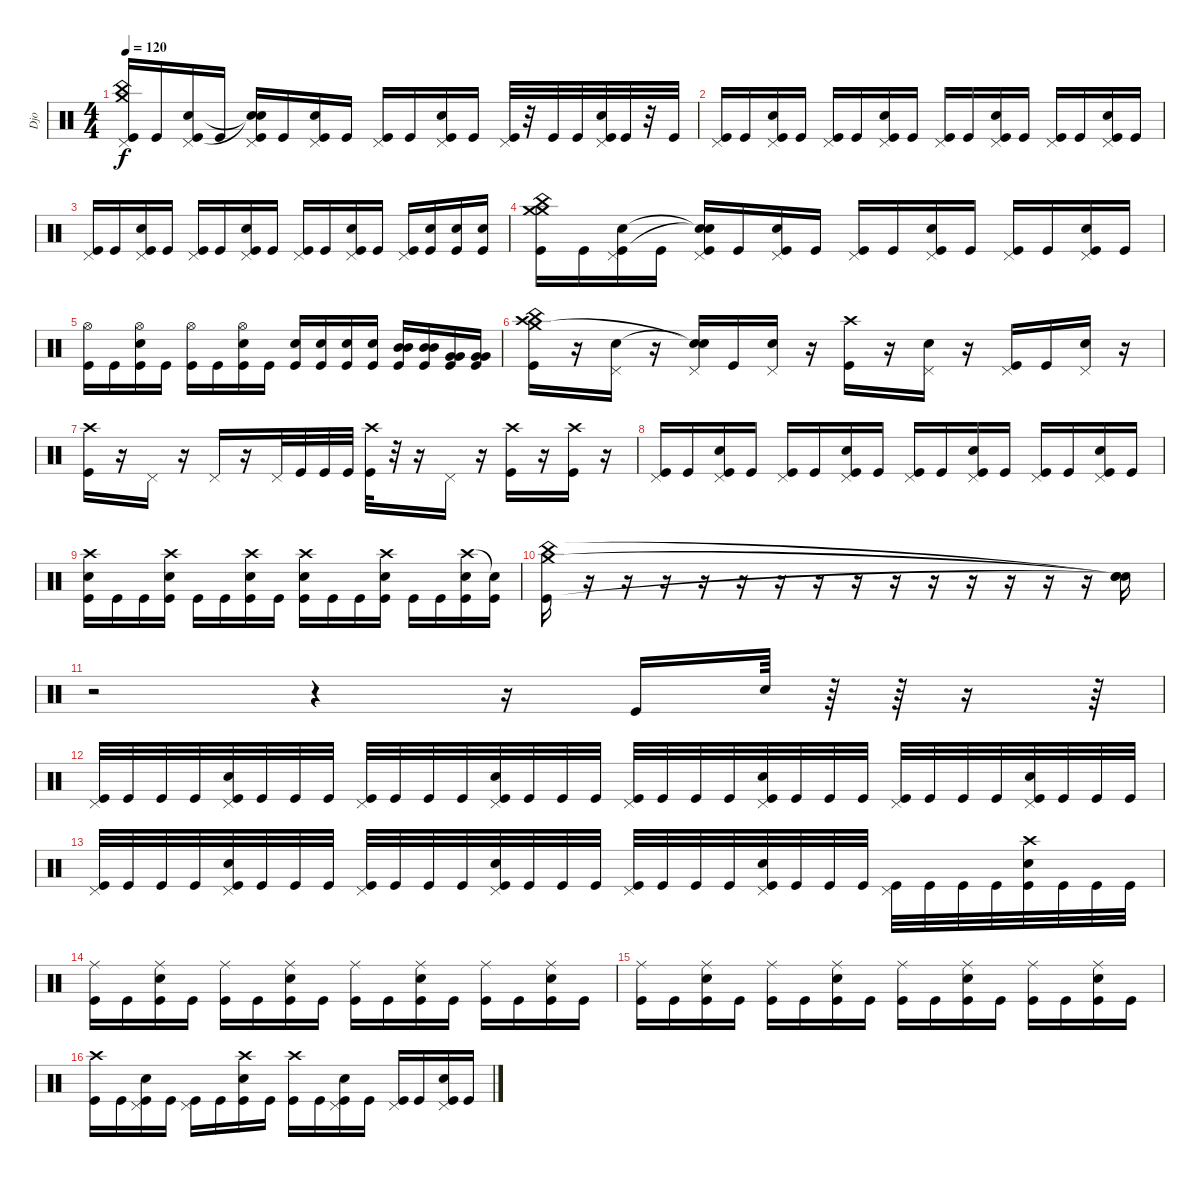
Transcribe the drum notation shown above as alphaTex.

\track ("Djo" "Djo") {instrument percussion}
\staff {score}
\articulation defaults
\ts (4 4)
\tempo 120
\clef neutral
\ks c
("Pedal Hi-Hat (hit)" "China (hit)" "Crash medium (hit)" "Kick (hit)").16{dy f} "Kick (hit)".16 ("Pedal Hi-Hat (hit)" "Kick (hit)" "Electric Snare (hit)").16 "Kick (hit)".16 ("Pedal Hi-Hat (hit)" "Snare (hit)"{t} "Snare (hit)"{t} "Kick (hit)").16 "Kick (hit)".16 ("Pedal Hi-Hat (hit)" "Kick (hit)" "Electric Snare (hit)").16 "Kick (hit)".16 ("Pedal Hi-Hat (hit)" "Kick (hit)").16 "Kick (hit)".16 ("Pedal Hi-Hat (hit)" "Kick (hit)" "Electric Snare (hit)").16 "Kick (hit)".16 ("Pedal Hi-Hat (hit)" "Kick (hit)").32 r.32 "Kick (hit)".32 "Kick (hit)".32 ("Pedal Hi-Hat (hit)" "Electric Snare (hit)" "Kick (hit)").32 "Kick (hit)".32 r.32 "Kick (hit)".32 |
("Pedal Hi-Hat (hit)" "Kick (hit)").16 "Kick (hit)".16 ("Pedal Hi-Hat (hit)" "Kick (hit)" "Electric Snare (hit)").16 "Kick (hit)".16 ("Pedal Hi-Hat (hit)" "Kick (hit)").16 "Kick (hit)".16 ("Pedal Hi-Hat (hit)" "Kick (hit)" "Electric Snare (hit)").16 "Kick (hit)".16 ("Pedal Hi-Hat (hit)" "Kick (hit)").16 "Kick (hit)".16 ("Pedal Hi-Hat (hit)" "Kick (hit)" "Electric Snare (hit)").16 "Kick (hit)".16 ("Pedal Hi-Hat (hit)" "Kick (hit)").16 "Kick (hit)".16 ("Pedal Hi-Hat (hit)" "Kick (hit)" "Electric Snare (hit)").16 "Kick (hit)".16 |
("Pedal Hi-Hat (hit)" "Kick (hit)").16 "Kick (hit)".16 ("Pedal Hi-Hat (hit)" "Kick (hit)" "Electric Snare (hit)").16 "Kick (hit)".16 ("Pedal Hi-Hat (hit)" "Kick (hit)").16 "Kick (hit)".16 ("Pedal Hi-Hat (hit)" "Kick (hit)" "Electric Snare (hit)").16 "Kick (hit)".16 ("Pedal Hi-Hat (hit)" "Kick (hit)").16 "Kick (hit)".16 ("Pedal Hi-Hat (hit)" "Kick (hit)" "Electric Snare (hit)").16 "Kick (hit)".16 ("Pedal Hi-Hat (hit)" "Kick (hit)").16 ("Kick (hit)" "Electric Snare (hit)").16 ("Kick (hit)" "Electric Snare (hit)").16 ("Kick (hit)" "Electric Snare (hit)").16 |
("Crash medium (hit)" "China (hit)" "Crash medium (hit)" "Kick (hit)").16 "Kick (hit)".16 ("Pedal Hi-Hat (hit)" "Kick (hit)" "Electric Snare (hit)").16 "Kick (hit)".16 ("Pedal Hi-Hat (hit)" "Snare (hit)"{t} "Snare (hit)"{t} "Kick (hit)").16 "Kick (hit)".16 ("Pedal Hi-Hat (hit)" "Electric Snare (hit)" "Kick (hit)").16 "Kick (hit)".16 ("Pedal Hi-Hat (hit)" "Kick (hit)").16 "Kick (hit)".16 ("Pedal Hi-Hat (hit)" "Electric Snare (hit)" "Kick (hit)").16 "Kick (hit)".16 ("Pedal Hi-Hat (hit)" "Kick (hit)").16 "Kick (hit)".16 ("Pedal Hi-Hat (hit)" "Electric Snare (hit)" "Kick (hit)").16 "Kick (hit)".16 |
("Hi-Hat (open)" "Kick (hit)").16 "Kick (hit)".16 ("Hi-Hat (open)" "Electric Snare (hit)" "Kick (hit)").16 "Kick (hit)".16 ("Hi-Hat (open)" "Kick (hit)").16 "Kick (hit)".16 ("Hi-Hat (open)" "Electric Snare (hit)" "Kick (hit)").16 "Kick (hit)".16 ("Electric Snare (hit)" "Kick (hit)").16 ("Electric Snare (hit)" "Kick (hit)").16 ("Electric Snare (hit)" "Kick (hit)").16 ("Electric Snare (hit)" "Kick (hit)").16 ("Mid Tom (hit)" "Mid Tom (hit)" "Kick (hit)").16 ("Mid Tom (hit)" "Mid Tom (hit)" "Kick (hit)").16 ("Very Low Tom (hit)" "Very Low Tom (hit)" "Kick (hit)").16 ("Very Low Tom (hit)" "Very Low Tom (hit)" "Kick (hit)").16 |
("Crash high (hit)" "China (hit)" "Crash medium (hit)" "Kick (hit)").16 r.16 ("Pedal Hi-Hat (hit)" "Electric Snare (hit)").16 r.16 ("Pedal Hi-Hat (hit)" "Snare (hit)"{t} "Snare (hit)"{t}).16 "Kick (hit)".16 ("Pedal Hi-Hat (hit)" "Electric Snare (hit)").16 r.16 ("Crash high (hit)" "Kick (hit)").16 r.16 ("Pedal Hi-Hat (hit)" "Electric Snare (hit)").16 r.16 ("Pedal Hi-Hat (hit)" "Kick (hit)").16 "Kick (hit)".16 ("Pedal Hi-Hat (hit)" "Electric Snare (hit)").16 r.16 |
("Crash high (hit)" "Kick (hit)").16 r.16 "Pedal Hi-Hat (hit)".16 r.16 "Pedal Hi-Hat (hit)".16 r.16 "Pedal Hi-Hat (hit)".32 "Kick (hit)".32 "Kick (hit)".32 "Kick (hit)".32 ("Crash high (hit)" "Kick (hit)").32 r.32 r.16 "Pedal Hi-Hat (hit)".16 r.16 ("Crash high (hit)" "Kick (hit)").16 r.16 ("Crash high (hit)" "Kick (hit)").16 r.16 |
("Pedal Hi-Hat (hit)" "Kick (hit)").16 "Kick (hit)".16 ("Pedal Hi-Hat (hit)" "Electric Snare (hit)" "Kick (hit)").16 "Kick (hit)".16 ("Pedal Hi-Hat (hit)" "Kick (hit)").16 "Kick (hit)".16 ("Pedal Hi-Hat (hit)" "Electric Snare (hit)" "Kick (hit)").16 "Kick (hit)".16 ("Pedal Hi-Hat (hit)" "Kick (hit)").16 "Kick (hit)".16 ("Pedal Hi-Hat (hit)" "Electric Snare (hit)" "Kick (hit)").16 "Kick (hit)".16 ("Pedal Hi-Hat (hit)" "Kick (hit)").16 "Kick (hit)".16 ("Pedal Hi-Hat (hit)" "Electric Snare (hit)" "Kick (hit)").16 "Kick (hit)".16 |
("Crash high (hit)" "Electric Snare (hit)" "Kick (hit)").16 "Kick (hit)".16 "Kick (hit)".16 ("Crash high (hit)" "Electric Snare (hit)" "Kick (hit)").16 "Kick (hit)".16 "Kick (hit)".16 ("Crash high (hit)" "Electric Snare (hit)" "Kick (hit)").16 "Kick (hit)".16 ("Crash high (hit)" "Electric Snare (hit)" "Kick (hit)").16 "Kick (hit)".16 "Kick (hit)".16 ("Crash high (hit)" "Electric Snare (hit)" "Kick (hit)").16 "Kick (hit)".16 "Kick (hit)".16 ("Crash high (hit)" "Electric Snare (hit)" "Kick (hit)").16 ("Snare (hit)"{t} "Kick (hit)").16 |
("Crash medium (hit)" "China (hit)" "Kick (hit)").16 r.16 r.16 r.16 r.16 r.16 r.16 r.16 r.16 r.16 r.16 r.16 r.16 r.16 r.16 ("Snare (hit)"{t} "Snare (hit)"{t} "Snare (hit)"{t}).16 |
r.2 r.4 r.16 "Kick (hit)".16 "Electric Snare (hit)".64 r.64 r.64 r.16 r.64 |
("Pedal Hi-Hat (hit)" "Kick (hit)").32 "Kick (hit)".32 "Kick (hit)".32 "Kick (hit)".32 ("Pedal Hi-Hat (hit)" "Electric Snare (hit)" "Kick (hit)").32 "Kick (hit)".32 "Kick (hit)".32 "Kick (hit)".32 ("Pedal Hi-Hat (hit)" "Kick (hit)").32 "Kick (hit)".32 "Kick (hit)".32 "Kick (hit)".32 ("Pedal Hi-Hat (hit)" "Electric Snare (hit)" "Kick (hit)").32 "Kick (hit)".32 "Kick (hit)".32 "Kick (hit)".32 ("Pedal Hi-Hat (hit)" "Kick (hit)").32 "Kick (hit)".32 "Kick (hit)".32 "Kick (hit)".32 ("Pedal Hi-Hat (hit)" "Electric Snare (hit)" "Kick (hit)").32 "Kick (hit)".32 "Kick (hit)".32 "Kick (hit)".32 ("Pedal Hi-Hat (hit)" "Kick (hit)").32 "Kick (hit)".32 "Kick (hit)".32 "Kick (hit)".32 ("Pedal Hi-Hat (hit)" "Electric Snare (hit)" "Kick (hit)").32 "Kick (hit)".32 "Kick (hit)".32 "Kick (hit)".32 |
("Pedal Hi-Hat (hit)" "Kick (hit)").32 "Kick (hit)".32 "Kick (hit)".32 "Kick (hit)".32 ("Pedal Hi-Hat (hit)" "Electric Snare (hit)" "Kick (hit)").32 "Kick (hit)".32 "Kick (hit)".32 "Kick (hit)".32 ("Pedal Hi-Hat (hit)" "Kick (hit)").32 "Kick (hit)".32 "Kick (hit)".32 "Kick (hit)".32 ("Pedal Hi-Hat (hit)" "Electric Snare (hit)" "Kick (hit)").32 "Kick (hit)".32 "Kick (hit)".32 "Kick (hit)".32 ("Pedal Hi-Hat (hit)" "Kick (hit)").32 "Kick (hit)".32 "Kick (hit)".32 "Kick (hit)".32 ("Pedal Hi-Hat (hit)" "Electric Snare (hit)" "Kick (hit)").32 "Kick (hit)".32 "Kick (hit)".32 "Kick (hit)".32 ("Pedal Hi-Hat (hit)" "Kick (hit)").32 "Kick (hit)".32 "Kick (hit)".32 "Kick (hit)".32 ("Crash high (hit)" "Electric Snare (hit)" "Kick (hit)").32 "Kick (hit)".32 "Kick (hit)".32 "Kick (hit)".32 |
("Ride (middle)" "Kick (hit)").16 "Kick (hit)".16 ("Ride (middle)" "Electric Snare (hit)" "Kick (hit)").16 "Kick (hit)".16 ("Ride (middle)" "Kick (hit)").16 "Kick (hit)".16 ("Ride (middle)" "Electric Snare (hit)" "Kick (hit)").16 "Kick (hit)".16 ("Ride (middle)" "Kick (hit)").16 "Kick (hit)".16 ("Ride (middle)" "Electric Snare (hit)" "Kick (hit)").16 "Kick (hit)".16 ("Ride (middle)" "Kick (hit)").16 "Kick (hit)".16 ("Ride (middle)" "Electric Snare (hit)" "Kick (hit)").16 "Kick (hit)".16 |
("Ride (middle)" "Kick (hit)").16 "Kick (hit)".16 ("Ride (middle)" "Electric Snare (hit)" "Kick (hit)").16 "Kick (hit)".16 ("Ride (middle)" "Kick (hit)").16 "Kick (hit)".16 ("Ride (middle)" "Electric Snare (hit)" "Kick (hit)").16 "Kick (hit)".16 ("Ride (middle)" "Kick (hit)").16 "Kick (hit)".16 ("Ride (middle)" "Electric Snare (hit)" "Kick (hit)").16 "Kick (hit)".16 ("Ride (middle)" "Kick (hit)").16 "Kick (hit)".16 ("Ride (middle)" "Electric Snare (hit)" "Kick (hit)").16 "Kick (hit)".16 |
("Crash high (hit)" "Kick (hit)").16 "Kick (hit)".16 ("Pedal Hi-Hat (hit)" "Electric Snare (hit)" "Kick (hit)").16 "Kick (hit)".16 ("Pedal Hi-Hat (hit)" "Kick (hit)").16 "Kick (hit)".16 ("Crash high (hit)" "Electric Snare (hit)" "Kick (hit)").16 "Kick (hit)".16 ("Crash high (hit)" "Kick (hit)").16 "Kick (hit)".16 ("Pedal Hi-Hat (hit)" "Electric Snare (hit)" "Kick (hit)").16 "Kick (hit)".16 ("Pedal Hi-Hat (hit)" "Kick (hit)").16 "Kick (hit)".16 ("Pedal Hi-Hat (hit)" "Electric Snare (hit)" "Kick (hit)").16 "Kick (hit)".16
